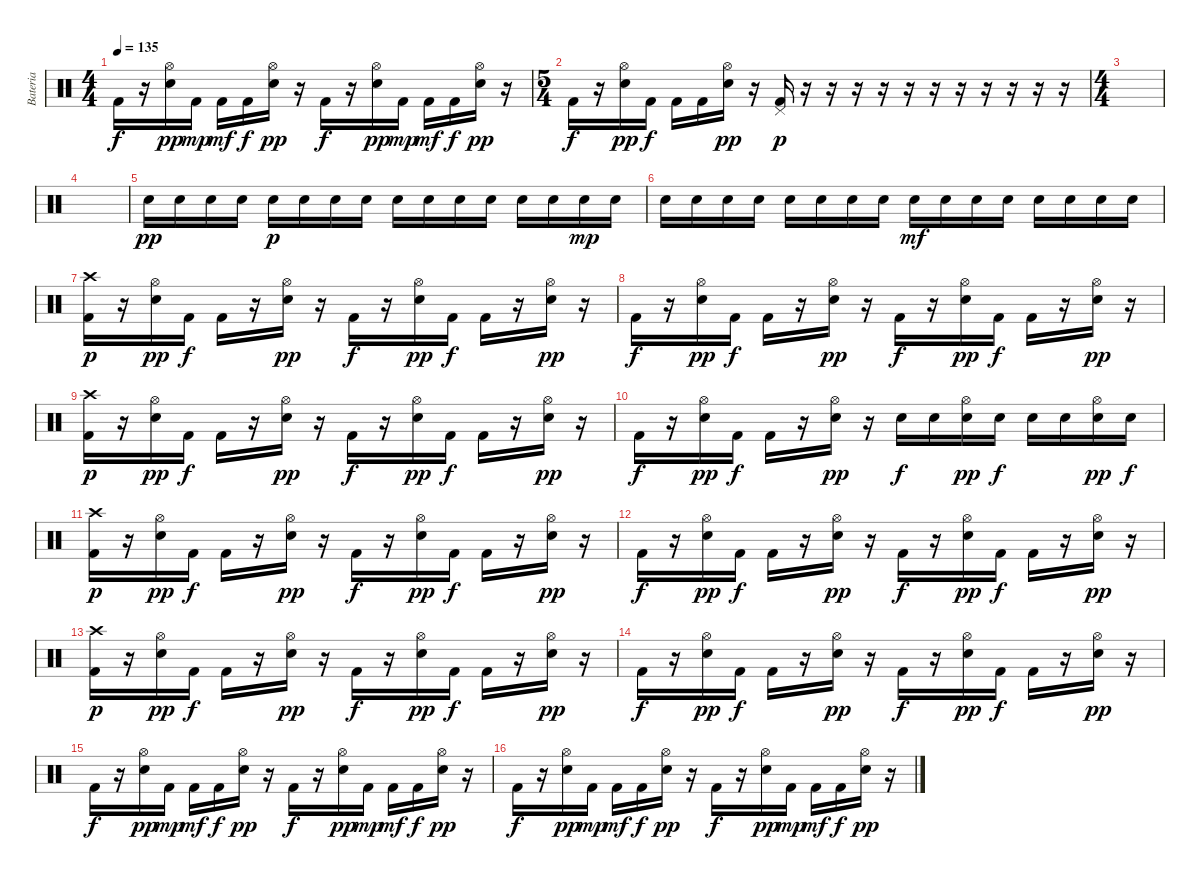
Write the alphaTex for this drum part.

\track ("Bateria" "Bateria") {instrument percussion}
\staff {score}
\articulation defaults
\ts (4 4)
\tempo 135
\clef neutral
\ks c "Kick (hit) 2".16{dy f}
r.16 ("Electric Snare (hit)" "Hi-Hat (open)").16{dy pp} "Kick (hit) 2".16{dy mp} "Kick (hit) 2".16{dy mf} "Kick (hit) 2".16{dy f} ("Electric Snare (hit)" "Hi-Hat (open)").16{dy pp} r.16 "Kick (hit) 2".16{dy f} r.16 ("Electric Snare (hit)" "Hi-Hat (open)").16{dy pp} "Kick (hit) 2".16{dy mp} "Kick (hit) 2".16{dy mf} "Kick (hit) 2".16{dy f} ("Electric Snare (hit)" "Hi-Hat (open)").16{dy pp} r.16 |
\ts (5 4)
"Kick (hit) 2".16{dy f} r.16 ("Electric Snare (hit)" "Hi-Hat (open)").16{dy pp} "Kick (hit) 2".16{dy f} "Kick (hit) 2".16 "Kick (hit) 2".16 ("Electric Snare (hit)" "Hi-Hat (open)").16{dy pp} r.16 ("Kick (hit) 2" "Pedal Hi-Hat (hit)").16{dy p} r.16 r.16 r.16 r.16 r.16 r.16 r.16 r.16 r.16 r.16 r.16 |
\ts (4 4)
|
|
"Electric Snare (hit)".16{dy pp} "Electric Snare (hit)".16 "Electric Snare (hit)".16 "Electric Snare (hit)".16 "Electric Snare (hit)".16{dy p} "Electric Snare (hit)".16 "Electric Snare (hit)".16 "Electric Snare (hit)".16 "Electric Snare (hit)".16 "Electric Snare (hit)".16 "Electric Snare (hit)".16 "Electric Snare (hit)".16 "Electric Snare (hit)".16 "Electric Snare (hit)".16 "Electric Snare (hit)".16{dy mp} "Electric Snare (hit)".16 |
"Electric Snare (hit)".16 "Electric Snare (hit)".16 "Electric Snare (hit)".16 "Electric Snare (hit)".16 "Electric Snare (hit)".16 "Electric Snare (hit)".16 "Electric Snare (hit)".16 "Electric Snare (hit)".16 "Electric Snare (hit)".16{dy mf} "Electric Snare (hit)".16 "Electric Snare (hit)".16 "Electric Snare (hit)".16 "Electric Snare (hit)".16 "Electric Snare (hit)".16 "Electric Snare (hit)".16 "Electric Snare (hit)".16 |
("Kick (hit) 2" "Crash high (hit)").16{dy p} r.16 ("Electric Snare (hit)" "Hi-Hat (open)").16{dy pp} "Kick (hit) 2".16{dy f} "Kick (hit) 2".16 r.16 ("Electric Snare (hit)" "Hi-Hat (open)").16{dy pp} r.16 "Kick (hit) 2".16{dy f} r.16 ("Electric Snare (hit)" "Hi-Hat (open)").16{dy pp} "Kick (hit) 2".16{dy f} "Kick (hit) 2".16 r.16 ("Electric Snare (hit)" "Hi-Hat (open)").16{dy pp} r.16 |
"Kick (hit) 2".16{dy f} r.16 ("Electric Snare (hit)" "Hi-Hat (open)").16{dy pp} "Kick (hit) 2".16{dy f} "Kick (hit) 2".16 r.16 ("Electric Snare (hit)" "Hi-Hat (open)").16{dy pp} r.16 "Kick (hit) 2".16{dy f} r.16 ("Electric Snare (hit)" "Hi-Hat (open)").16{dy pp} "Kick (hit) 2".16{dy f} "Kick (hit) 2".16 r.16 ("Electric Snare (hit)" "Hi-Hat (open)").16{dy pp} r.16 |
("Kick (hit) 2" "Crash high (hit)").16{dy p} r.16 ("Electric Snare (hit)" "Hi-Hat (open)").16{dy pp} "Kick (hit) 2".16{dy f} "Kick (hit) 2".16 r.16 ("Electric Snare (hit)" "Hi-Hat (open)").16{dy pp} r.16 "Kick (hit) 2".16{dy f} r.16 ("Electric Snare (hit)" "Hi-Hat (open)").16{dy pp} "Kick (hit) 2".16{dy f} "Kick (hit) 2".16 r.16 ("Electric Snare (hit)" "Hi-Hat (open)").16{dy pp} r.16 |
"Kick (hit) 2".16{dy f} r.16 ("Electric Snare (hit)" "Hi-Hat (open)").16{dy pp} "Kick (hit) 2".16{dy f} "Kick (hit) 2".16 r.16 ("Electric Snare (hit)" "Hi-Hat (open)").16{dy pp} r.16 "Electric Snare (hit)".16{dy f} "Electric Snare (hit)".16 ("Electric Snare (hit)" "Hi-Hat (open)").16{dy pp} "Electric Snare (hit)".16{dy f} "Electric Snare (hit)".16 "Electric Snare (hit)".16 ("Electric Snare (hit)" "Hi-Hat (open)").16{dy pp} "Electric Snare (hit)".16{dy f} |
("Kick (hit) 2" "Crash high (hit)").16{dy p} r.16 ("Electric Snare (hit)" "Hi-Hat (open)").16{dy pp} "Kick (hit) 2".16{dy f} "Kick (hit) 2".16 r.16 ("Electric Snare (hit)" "Hi-Hat (open)").16{dy pp} r.16 "Kick (hit) 2".16{dy f} r.16 ("Electric Snare (hit)" "Hi-Hat (open)").16{dy pp} "Kick (hit) 2".16{dy f} "Kick (hit) 2".16 r.16 ("Electric Snare (hit)" "Hi-Hat (open)").16{dy pp} r.16 |
"Kick (hit) 2".16{dy f} r.16 ("Electric Snare (hit)" "Hi-Hat (open)").16{dy pp} "Kick (hit) 2".16{dy f} "Kick (hit) 2".16 r.16 ("Electric Snare (hit)" "Hi-Hat (open)").16{dy pp} r.16 "Kick (hit) 2".16{dy f} r.16 ("Electric Snare (hit)" "Hi-Hat (open)").16{dy pp} "Kick (hit) 2".16{dy f} "Kick (hit) 2".16 r.16 ("Electric Snare (hit)" "Hi-Hat (open)").16{dy pp} r.16 |
("Kick (hit) 2" "Crash high (hit)").16{dy p} r.16 ("Electric Snare (hit)" "Hi-Hat (open)").16{dy pp} "Kick (hit) 2".16{dy f} "Kick (hit) 2".16 r.16 ("Electric Snare (hit)" "Hi-Hat (open)").16{dy pp} r.16 "Kick (hit) 2".16{dy f} r.16 ("Electric Snare (hit)" "Hi-Hat (open)").16{dy pp} "Kick (hit) 2".16{dy f} "Kick (hit) 2".16 r.16 ("Electric Snare (hit)" "Hi-Hat (open)").16{dy pp} r.16 |
"Kick (hit) 2".16{dy f} r.16 ("Electric Snare (hit)" "Hi-Hat (open)").16{dy pp} "Kick (hit) 2".16{dy f} "Kick (hit) 2".16 r.16 ("Electric Snare (hit)" "Hi-Hat (open)").16{dy pp} r.16 "Kick (hit) 2".16{dy f} r.16 ("Electric Snare (hit)" "Hi-Hat (open)").16{dy pp} "Kick (hit) 2".16{dy f} "Kick (hit) 2".16 r.16 ("Electric Snare (hit)" "Hi-Hat (open)").16{dy pp} r.16 |
"Kick (hit) 2".16{dy f} r.16 ("Electric Snare (hit)" "Hi-Hat (open)").16{dy pp} "Kick (hit) 2".16{dy mp} "Kick (hit) 2".16{dy mf} "Kick (hit) 2".16{dy f} ("Electric Snare (hit)" "Hi-Hat (open)").16{dy pp} r.16 "Kick (hit) 2".16{dy f} r.16 ("Electric Snare (hit)" "Hi-Hat (open)").16{dy pp} "Kick (hit) 2".16{dy mp} "Kick (hit) 2".16{dy mf} "Kick (hit) 2".16{dy f} ("Electric Snare (hit)" "Hi-Hat (open)").16{dy pp} r.16 |
"Kick (hit) 2".16{dy f} r.16 ("Electric Snare (hit)" "Hi-Hat (open)").16{dy pp} "Kick (hit) 2".16{dy mp} "Kick (hit) 2".16{dy mf} "Kick (hit) 2".16{dy f} ("Electric Snare (hit)" "Hi-Hat (open)").16{dy pp} r.16 "Kick (hit) 2".16{dy f} r.16 ("Electric Snare (hit)" "Hi-Hat (open)").16{dy pp} "Kick (hit) 2".16{dy mp} "Kick (hit) 2".16{dy mf} "Kick (hit) 2".16{dy f} ("Electric Snare (hit)" "Hi-Hat (open)").16{dy pp} r.16
